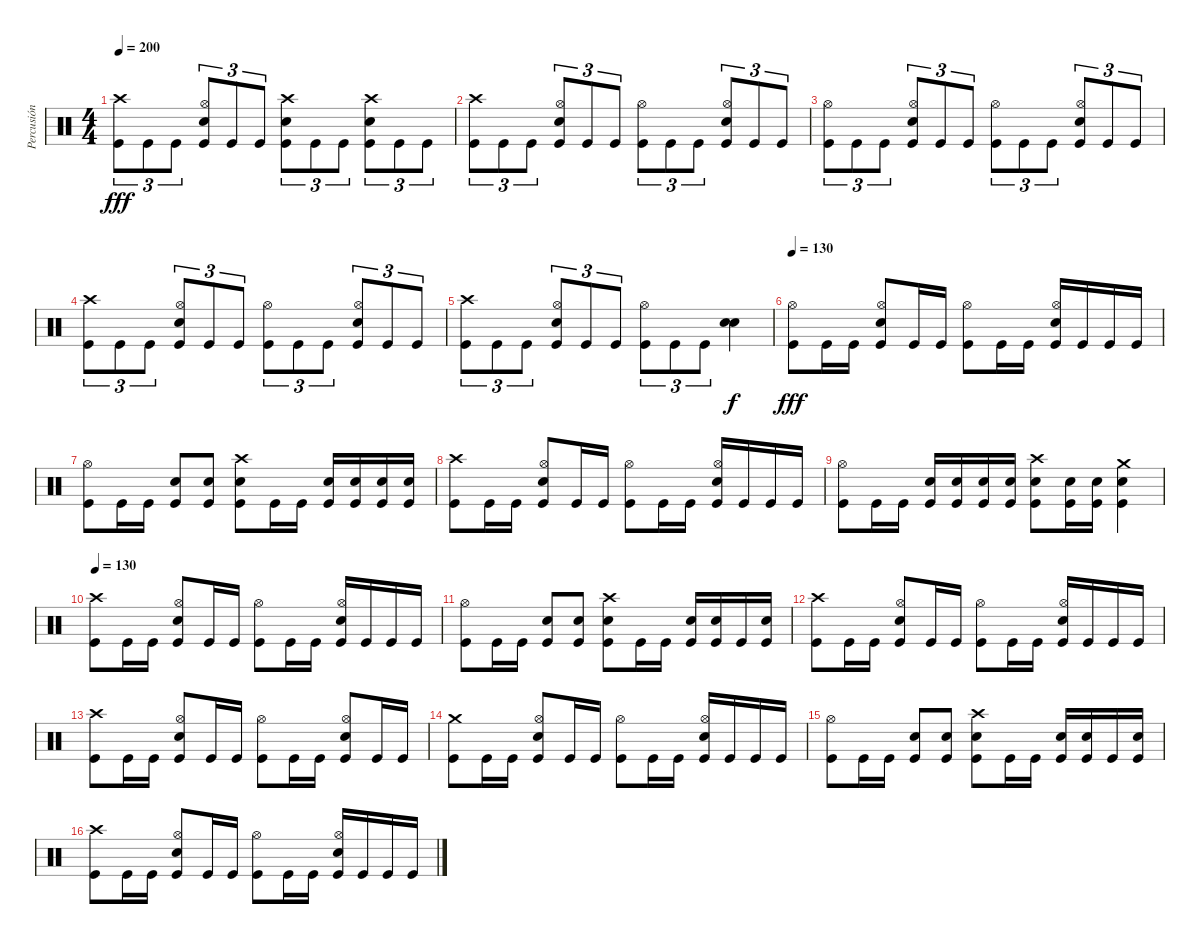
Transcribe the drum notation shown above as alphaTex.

\track ("Percusión" "Percusión") {instrument percussion}
\staff {score}
\articulation defaults
\ts (4 4)
\tempo 200
\clef neutral
\ks c
("Crash high (hit)" "Kick (hit)").8{tu (3 2) dy fff} "Kick (hit)".8{tu (3 2)} "Kick (hit)".8{tu (3 2)} ("Hi-Hat (open)" "Electric Snare (hit)" "Kick (hit)").8{tu (3 2)} "Kick (hit)".8{tu (3 2)} "Kick (hit)".8{tu (3 2)} ("Crash high (hit)" "Electric Snare (hit)" "Kick (hit)").8{tu (3 2)} "Kick (hit)".8{tu (3 2)} "Kick (hit)".8{tu (3 2)} ("Crash high (hit)" "Electric Snare (hit)" "Kick (hit)").8{tu (3 2)} "Kick (hit)".8{tu (3 2)} "Kick (hit)".8{tu (3 2)} |
("Crash high (hit)" "Kick (hit)").8{tu (3 2)} "Kick (hit)".8{tu (3 2)} "Kick (hit)".8{tu (3 2)} ("Hi-Hat (open)" "Electric Snare (hit)" "Kick (hit)").8{tu (3 2)} "Kick (hit)".8{tu (3 2)} "Kick (hit)".8{tu (3 2)} ("Hi-Hat (open)" "Kick (hit)").8{tu (3 2)} "Kick (hit)".8{tu (3 2)} "Kick (hit)".8{tu (3 2)} ("Hi-Hat (open)" "Electric Snare (hit)" "Kick (hit)").8{tu (3 2)} "Kick (hit)".8{tu (3 2)} "Kick (hit)".8{tu (3 2)} |
("Hi-Hat (open)" "Kick (hit)").8{tu (3 2)} "Kick (hit)".8{tu (3 2)} "Kick (hit)".8{tu (3 2)} ("Hi-Hat (open)" "Electric Snare (hit)" "Kick (hit)").8{tu (3 2)} "Kick (hit)".8{tu (3 2)} "Kick (hit)".8{tu (3 2)} ("Hi-Hat (open)" "Kick (hit)").8{tu (3 2)} "Kick (hit)".8{tu (3 2)} "Kick (hit)".8{tu (3 2)} ("Hi-Hat (open)" "Electric Snare (hit)" "Kick (hit)").8{tu (3 2)} "Kick (hit)".8{tu (3 2)} "Kick (hit)".8{tu (3 2)} |
("Crash high (hit)" "Kick (hit)").8{tu (3 2)} "Kick (hit)".8{tu (3 2)} "Kick (hit)".8{tu (3 2)} ("Hi-Hat (open)" "Electric Snare (hit)" "Kick (hit)").8{tu (3 2)} "Kick (hit)".8{tu (3 2)} "Kick (hit)".8{tu (3 2)} ("Hi-Hat (open)" "Kick (hit)").8{tu (3 2)} "Kick (hit)".8{tu (3 2)} "Kick (hit)".8{tu (3 2)} ("Hi-Hat (open)" "Electric Snare (hit)" "Kick (hit)").8{tu (3 2)} "Kick (hit)".8{tu (3 2)} "Kick (hit)".8{tu (3 2)} |
("Crash high (hit)" "Kick (hit)").8{tu (3 2)} "Kick (hit)".8{tu (3 2)} "Kick (hit)".8{tu (3 2)} ("Hi-Hat (open)" "Electric Snare (hit)" "Kick (hit)").8{tu (3 2)} "Kick (hit)".8{tu (3 2)} "Kick (hit)".8{tu (3 2)} ("Hi-Hat (open)" "Kick (hit)").8{tu (3 2)} "Kick (hit)".8{tu (3 2)} "Kick (hit)".8{tu (3 2)} ("Electric Snare (hit)" "Electric Snare (hit)").4{bd 480 dy f} |
\tempo 130
("Hi-Hat (open)" "Kick (hit)").8{dy fff} "Kick (hit)".16 "Kick (hit)".16 ("Hi-Hat (open)" "Electric Snare (hit)" "Kick (hit)").8 "Kick (hit)".16 "Kick (hit)".16 ("Hi-Hat (open)" "Kick (hit)").8 "Kick (hit)".16 "Kick (hit)".16 ("Hi-Hat (open)" "Electric Snare (hit)" "Kick (hit)").16 "Kick (hit)".16 "Kick (hit)".16 "Kick (hit)".16 |
("Hi-Hat (open)" "Kick (hit)").8 "Kick (hit)".16 "Kick (hit)".16 ("Electric Snare (hit)" "Kick (hit)").8 ("Electric Snare (hit)" "Kick (hit)").8 ("Crash high (hit)" "Electric Snare (hit)" "Kick (hit)").8 "Kick (hit)".16 "Kick (hit)".16 ("Electric Snare (hit)" "Kick (hit)").16 ("Electric Snare (hit)" "Kick (hit)").16 ("Electric Snare (hit)" "Kick (hit)").16 ("Electric Snare (hit)" "Kick (hit)").16 |
("Crash high (hit)" "Kick (hit)").8 "Kick (hit)".16 "Kick (hit)".16 ("Hi-Hat (open)" "Electric Snare (hit)" "Kick (hit)").8 "Kick (hit)".16 "Kick (hit)".16 ("Hi-Hat (open)" "Kick (hit)").8 "Kick (hit)".16 "Kick (hit)".16 ("Hi-Hat (open)" "Electric Snare (hit)" "Kick (hit)").16 "Kick (hit)".16 "Kick (hit)".16 "Kick (hit)".16 |
("Hi-Hat (open)" "Kick (hit)").8 "Kick (hit)".16 "Kick (hit)".16 ("Electric Snare (hit)" "Kick (hit)").16 ("Electric Snare (hit)" "Kick (hit)").16 ("Electric Snare (hit)" "Kick (hit)").16 ("Electric Snare (hit)" "Kick (hit)").16 ("Crash high (hit)" "Electric Snare (hit)" "Kick (hit)").8 ("Electric Snare (hit)" "Kick (hit)").16 ("Electric Snare (hit)" "Kick (hit)").16 ("Crash medium (hit)" "Electric Snare (hit)" "Kick (hit)").4 |
\tempo 130
("Crash high (hit)" "Kick (hit)").8 "Kick (hit)".16 "Kick (hit)".16 ("Hi-Hat (open)" "Electric Snare (hit)" "Kick (hit)").8 "Kick (hit)".16 "Kick (hit)".16 ("Hi-Hat (open)" "Kick (hit)").8 "Kick (hit)".16 "Kick (hit)".16 ("Hi-Hat (open)" "Electric Snare (hit)" "Kick (hit)").16 "Kick (hit)".16 "Kick (hit)".16 "Kick (hit)".16 |
("Hi-Hat (open)" "Kick (hit)").8 "Kick (hit)".16 "Kick (hit)".16 ("Electric Snare (hit)" "Kick (hit)").8 ("Electric Snare (hit)" "Kick (hit)").8 ("Crash high (hit)" "Electric Snare (hit)" "Kick (hit)").8 "Kick (hit)".16 "Kick (hit)".16 ("Electric Snare (hit)" "Kick (hit)").16 ("Electric Snare (hit)" "Kick (hit)").16 "Kick (hit)".16 ("Electric Snare (hit)" "Kick (hit)").16 |
("Crash high (hit)" "Kick (hit)").8 "Kick (hit)".16 "Kick (hit)".16 ("Hi-Hat (open)" "Electric Snare (hit)" "Kick (hit)").8 "Kick (hit)".16 "Kick (hit)".16 ("Hi-Hat (open)" "Kick (hit)").8 "Kick (hit)".16 "Kick (hit)".16 ("Hi-Hat (open)" "Electric Snare (hit)" "Kick (hit)").16 "Kick (hit)".16 "Kick (hit)".16 "Kick (hit)".16 |
("Crash high (hit)" "Kick (hit)").8 "Kick (hit)".16 "Kick (hit)".16 ("Hi-Hat (open)" "Electric Snare (hit)" "Kick (hit)").8 "Kick (hit)".16 "Kick (hit)".16 ("Hi-Hat (open)" "Kick (hit)").8 "Kick (hit)".16 "Kick (hit)".16 ("Hi-Hat (open)" "Electric Snare (hit)" "Kick (hit)").8 "Kick (hit)".16 "Kick (hit)".16 |
("Crash medium (hit)" "Kick (hit)").8 "Kick (hit)".16 "Kick (hit)".16 ("Hi-Hat (open)" "Electric Snare (hit)" "Kick (hit)").8 "Kick (hit)".16 "Kick (hit)".16 ("Hi-Hat (open)" "Kick (hit)").8 "Kick (hit)".16 "Kick (hit)".16 ("Hi-Hat (open)" "Electric Snare (hit)" "Kick (hit)").16 "Kick (hit)".16 "Kick (hit)".16 "Kick (hit)".16 |
("Hi-Hat (open)" "Kick (hit)").8 "Kick (hit)".16 "Kick (hit)".16 ("Electric Snare (hit)" "Kick (hit)").8 ("Electric Snare (hit)" "Kick (hit)").8 ("Crash high (hit)" "Electric Snare (hit)" "Kick (hit)").8 "Kick (hit)".16 "Kick (hit)".16 ("Electric Snare (hit)" "Kick (hit)").16 ("Electric Snare (hit)" "Kick (hit)").16 "Kick (hit)".16 ("Electric Snare (hit)" "Kick (hit)").16 |
("Crash high (hit)" "Kick (hit)").8 "Kick (hit)".16 "Kick (hit)".16 ("Hi-Hat (open)" "Electric Snare (hit)" "Kick (hit)").8 "Kick (hit)".16 "Kick (hit)".16 ("Hi-Hat (open)" "Kick (hit)").8 "Kick (hit)".16 "Kick (hit)".16 ("Hi-Hat (open)" "Electric Snare (hit)" "Kick (hit)").16 "Kick (hit)".16 "Kick (hit)".16 "Kick (hit)".16
